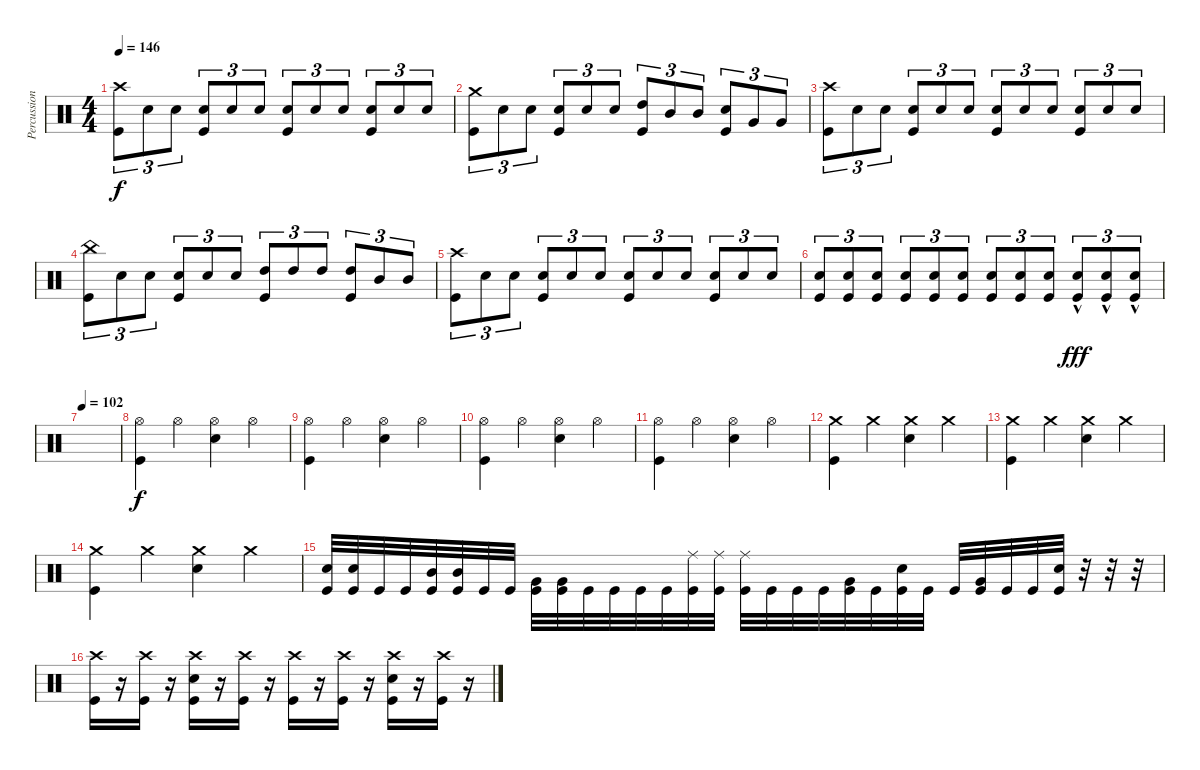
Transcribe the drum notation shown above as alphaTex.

\track ("Percussion" "Percussion") {instrument percussion}
\staff {score}
\articulation defaults
\ts (4 4)
\tempo 146
\clef neutral
\ks c
("Crash high (hit)" "Kick (hit)").8{tu (3 2) dy f} "Snare (hit) 2".8{tu (3 2)} "Snare (hit) 2".8{tu (3 2)} ("Snare (hit) 2" "Kick (hit)").8{tu (3 2)} "Snare (hit) 2".8{tu (3 2)} "Snare (hit) 2".8{tu (3 2)} ("Snare (hit) 2" "Kick (hit)").8{tu (3 2)} "Snare (hit) 2".8{tu (3 2)} "Snare (hit) 2".8{tu (3 2)} ("Snare (hit) 2" "Kick (hit)").8{tu (3 2)} "Snare (hit) 2".8{tu (3 2)} "Snare (hit) 2".8{tu (3 2)} |
("Crash medium (hit)" "Kick (hit)").8{tu (3 2)} "Snare (hit) 2".8{tu (3 2)} "Snare (hit) 2".8{tu (3 2)} ("Snare (hit) 2" "Kick (hit)").8{tu (3 2)} "Snare (hit) 2".8{tu (3 2)} "Snare (hit) 2".8{tu (3 2)} ("High Tom (hit)" "Kick (hit)").8{tu (3 2)} "Mid Tom (hit)".8{tu (3 2)} "Mid Tom (hit)".8{tu (3 2)} ("Snare (hit) 2" "Kick (hit)").8{tu (3 2)} "Very Low Tom (hit)".8{tu (3 2)} "Very Low Tom (hit)".8{tu (3 2)} |
("Crash high (hit)" "Kick (hit)").8{tu (3 2)} "Snare (hit) 2".8{tu (3 2)} "Snare (hit) 2".8{tu (3 2)} ("Snare (hit) 2" "Kick (hit)").8{tu (3 2)} "Snare (hit) 2".8{tu (3 2)} "Snare (hit) 2".8{tu (3 2)} ("Snare (hit) 2" "Kick (hit)").8{tu (3 2)} "Snare (hit) 2".8{tu (3 2)} "Snare (hit) 2".8{tu (3 2)} ("Snare (hit) 2" "Kick (hit)").8{tu (3 2)} "Snare (hit) 2".8{tu (3 2)} "Snare (hit) 2".8{tu (3 2)} |
("China (hit)" "Kick (hit)").8{tu (3 2)} "Snare (hit) 2".8{tu (3 2)} "Snare (hit) 2".8{tu (3 2)} ("Snare (hit) 2" "Kick (hit)").8{tu (3 2)} "Snare (hit) 2".8{tu (3 2)} "Snare (hit) 2".8{tu (3 2)} ("High Tom (hit)" "Kick (hit)").8{tu (3 2)} "High Tom (hit)".8{tu (3 2)} "High Tom (hit)".8{tu (3 2)} ("High Tom (hit)" "Kick (hit)").8{tu (3 2)} "Mid Tom (hit)".8{tu (3 2)} "Mid Tom (hit)".8{tu (3 2)} |
("Crash high (hit)" "Kick (hit)").8{tu (3 2)} "Snare (hit) 2".8{tu (3 2)} "Snare (hit) 2".8{tu (3 2)} ("Snare (hit) 2" "Kick (hit)").8{tu (3 2)} "Snare (hit) 2".8{tu (3 2)} "Snare (hit) 2".8{tu (3 2)} ("Snare (hit) 2" "Kick (hit)").8{tu (3 2)} "Snare (hit) 2".8{tu (3 2)} "Snare (hit) 2".8{tu (3 2)} ("Snare (hit) 2" "Kick (hit)").8{tu (3 2)} "Snare (hit) 2".8{tu (3 2)} "Snare (hit) 2".8{tu (3 2)} |
("Snare (hit) 2" "Kick (hit)").8{tu (3 2)} ("Snare (hit) 2" "Kick (hit)").8{tu (3 2)} ("Snare (hit) 2" "Kick (hit)").8{tu (3 2)} ("Snare (hit) 2" "Kick (hit)").8{tu (3 2)} ("Snare (hit) 2" "Kick (hit)").8{tu (3 2)} ("Snare (hit) 2" "Kick (hit)").8{tu (3 2)} ("Snare (hit) 2" "Kick (hit)").8{tu (3 2)} ("Snare (hit) 2" "Kick (hit)").8{tu (3 2)} ("Snare (hit) 2" "Kick (hit)").8{tu (3 2)} ("Snare (hit) 2"{hac} "Kick (hit)").8{tu (3 2) dy fff} ("Snare (hit) 2"{hac} "Kick (hit)").8{tu (3 2)} ("Snare (hit) 2"{hac} "Kick (hit)").8{tu (3 2)} |
\tempo 102
|
("Hi-Hat (open)" "Kick (hit)").4{dy f} "Hi-Hat (open)".4 ("Hi-Hat (open)" "Snare (hit) 2").4 "Hi-Hat (open)".4 |
("Hi-Hat (open)" "Kick (hit)").4 "Hi-Hat (open)".4 ("Hi-Hat (open)" "Snare (hit) 2").4 "Hi-Hat (open)".4 |
("Hi-Hat (open)" "Kick (hit)").4 "Hi-Hat (open)".4 ("Hi-Hat (open)" "Snare (hit) 2").4 "Hi-Hat (open)".4 |
("Hi-Hat (open)" "Kick (hit)").4 "Hi-Hat (open)".4 ("Hi-Hat (open)" "Snare (hit) 2").4 "Hi-Hat (open)".4 |
("Crash medium (hit)" "Kick (hit)").4 "Crash medium (hit)".4 ("Crash medium (hit)" "Snare (hit) 2").4 "Crash medium (hit)".4 |
("Crash medium (hit)" "Kick (hit)").4 "Crash medium (hit)".4 ("Crash medium (hit)" "Snare (hit) 2").4 "Crash medium (hit)".4 |
("Crash medium (hit)" "Kick (hit)").4 "Crash medium (hit)".4 ("Crash medium (hit)" "Snare (hit) 2").4 "Crash medium (hit)".4 |
("Snare (hit) 2" "Kick (hit)").32 ("Snare (hit) 2" "Kick (hit)").32 "Kick (hit)".32 "Kick (hit)".32 ("Mid Tom (hit)" "Kick (hit)").32 ("Mid Tom (hit)" "Kick (hit)").32 "Kick (hit)".32 "Kick (hit)".32 ("Very Low Tom (hit)" "Kick (hit)").32 ("Very Low Tom (hit)" "Kick (hit)").32 "Kick (hit)".32 "Kick (hit)".32 "Kick (hit)".32 "Kick (hit)".32 ("Ride (middle)" "Kick (hit)").32 ("Ride (middle)" "Kick (hit)").32 ("Ride (middle)" "Kick (hit)").32 "Kick (hit)".32 "Kick (hit)".32 "Kick (hit)".32 ("Very Low Tom (hit)" "Kick (hit)").32 "Kick (hit)".32 ("Snare (hit) 2" "Kick (hit)").32 "Kick (hit)".32 "Kick (hit)".32 ("Very Low Tom (hit)" "Kick (hit)").32 "Kick (hit)".32 "Kick (hit)".32 ("Snare (hit) 2" "Kick (hit)").32 r.32 r.32 r.32 |
("Crash high (hit)" "Kick (hit)").16 r.16 ("Crash high (hit)" "Kick (hit)").16 r.16 ("Crash high (hit)" "Snare (hit) 2" "Kick (hit)").16 r.16 ("Crash high (hit)" "Kick (hit)").16 r.16 ("Crash high (hit)" "Kick (hit)").16 r.16 ("Crash high (hit)" "Kick (hit)").16 r.16 ("Crash high (hit)" "Snare (hit) 2" "Kick (hit)").16 r.16 ("Crash high (hit)" "Kick (hit)").16 r.16
